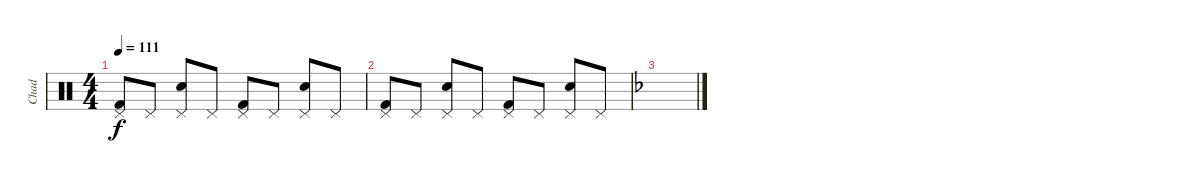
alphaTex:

\track ("Chad" "Chad") {instrument percussion}
\staff {score}
\articulation defaults
\ts (4 4)
\tempo 111
\clef neutral
\ks c
("Pedal Hi-Hat (hit)" "Kick (hit) 2").8{dy f} "Pedal Hi-Hat (hit)".8 ("Pedal Hi-Hat (hit)" "Snare (hit) 2").8 "Pedal Hi-Hat (hit)".8 ("Pedal Hi-Hat (hit)" "Kick (hit) 2").8 "Pedal Hi-Hat (hit)".8 ("Pedal Hi-Hat (hit)" "Snare (hit) 2").8 "Pedal Hi-Hat (hit)".8 |
("Pedal Hi-Hat (hit)" "Kick (hit) 2").8 "Pedal Hi-Hat (hit)".8 ("Pedal Hi-Hat (hit)" "Snare (hit) 2").8 "Pedal Hi-Hat (hit)".8 ("Pedal Hi-Hat (hit)" "Kick (hit) 2").8 "Pedal Hi-Hat (hit)".8 ("Pedal Hi-Hat (hit)" "Snare (hit) 2").8 "Pedal Hi-Hat (hit)".8 |
\ks f
